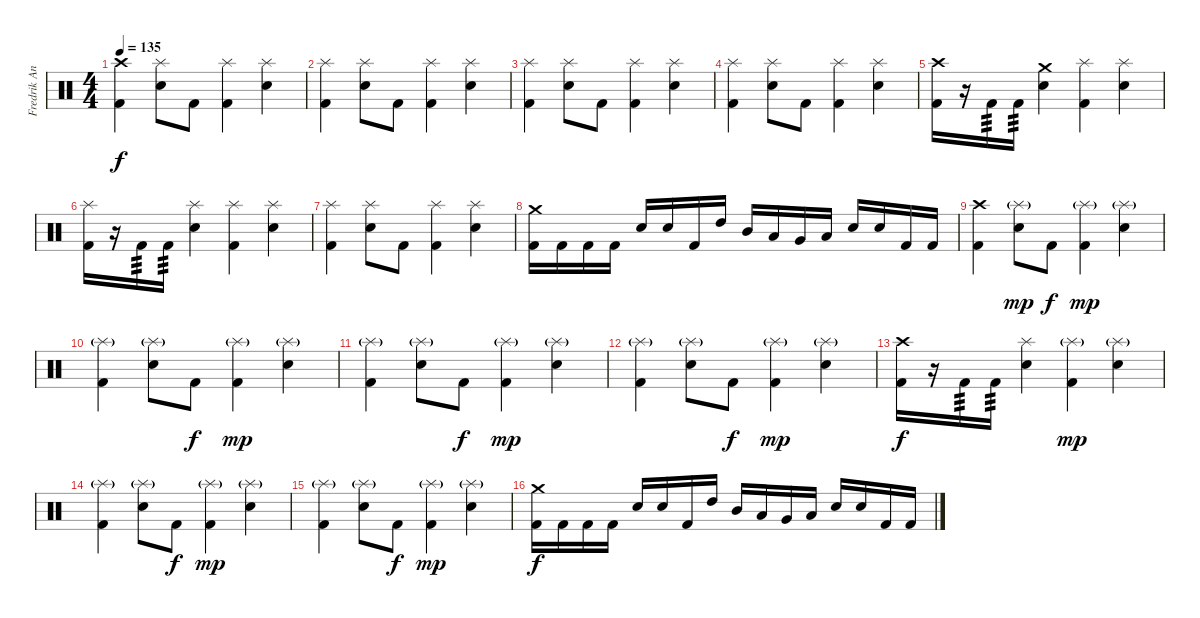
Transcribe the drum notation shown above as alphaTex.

\track ("Fredrik Andersson" "Fredrik An") {instrument percussion}
\staff {score}
\articulation defaults
\ts (4 4)
\tempo 135
\clef neutral
\ks c
("Kick (hit) 2" "Crash high (hit)").4{dy f} ("Snare (hit) 2" "Splash (hit)").8 "Kick (hit) 2".8 ("Kick (hit) 2" "Splash (hit)").4 ("Snare (hit) 2" "Splash (hit)").4 |
("Kick (hit) 2" "Splash (hit)").4 ("Snare (hit) 2" "Splash (hit)").8 "Kick (hit) 2".8 ("Kick (hit) 2" "Splash (hit)").4 ("Snare (hit) 2" "Splash (hit)").4 |
("Kick (hit) 2" "Splash (hit)").4 ("Snare (hit) 2" "Splash (hit)").8 "Kick (hit) 2".8 ("Kick (hit) 2" "Splash (hit)").4 ("Snare (hit) 2" "Splash (hit)").4 |
("Kick (hit) 2" "Splash (hit)").4 ("Snare (hit) 2" "Splash (hit)").8 "Kick (hit) 2".8 ("Kick (hit) 2" "Splash (hit)").4 ("Snare (hit) 2" "Splash (hit)").4 |
("Kick (hit) 2" "Crash high (hit)").16 r.16 "Kick (hit) 2".16{tp 3} "Kick (hit) 2".16{tp 3} ("Snare (hit) 2" "Crash medium (hit)").4 ("Kick (hit) 2" "Splash (hit)").4 ("Snare (hit) 2" "Splash (hit)").4 |
("Kick (hit) 2" "Splash (hit)").16 r.16 "Kick (hit) 2".16{tp 3} "Kick (hit) 2".16{tp 3} ("Snare (hit) 2" "Splash (hit)").4 ("Kick (hit) 2" "Splash (hit)").4 ("Snare (hit) 2" "Splash (hit)").4 |
("Kick (hit) 2" "Splash (hit)").4 ("Snare (hit) 2" "Splash (hit)").8 "Kick (hit) 2".8 ("Kick (hit) 2" "Splash (hit)").4 ("Snare (hit) 2" "Splash (hit)").4 |
("Kick (hit) 2" "Crash medium (hit)").16 "Kick (hit) 2".16 "Kick (hit) 2".16 "Kick (hit) 2".16 "Snare (hit) 2".16 "Snare (hit) 2".16 "Kick (hit) 2".16 "High Tom (hit)".16 "Mid Tom (hit)".16 "Low Tom (hit)".16 "Very Low Tom (hit)".16 "Low Floor Tom (hit)".16 "Snare (hit) 2".16 "Snare (hit) 2".16 "Kick (hit) 2".16 "Kick (hit) 2".16 |
("Kick (hit) 2" "Crash high (hit)").4 ("Snare (hit) 2" "Splash (hit)"{g}).8{dy mp} "Kick (hit) 2".8{dy f} ("Kick (hit) 2" "Splash (hit)"{g}).4{dy mp} ("Snare (hit) 2" "Splash (hit)"{g}).4 |
("Kick (hit) 2" "Splash (hit)"{g}).4 ("Snare (hit) 2" "Splash (hit)"{g}).8 "Kick (hit) 2".8{dy f} ("Kick (hit) 2" "Splash (hit)"{g}).4{dy mp} ("Snare (hit) 2" "Splash (hit)"{g}).4 |
("Kick (hit) 2" "Splash (hit)"{g}).4 ("Snare (hit) 2" "Splash (hit)"{g}).8 "Kick (hit) 2".8{dy f} ("Kick (hit) 2" "Splash (hit)"{g}).4{dy mp} ("Snare (hit) 2" "Splash (hit)"{g}).4 |
("Kick (hit) 2" "Splash (hit)"{g}).4 ("Snare (hit) 2" "Splash (hit)"{g}).8 "Kick (hit) 2".8{dy f} ("Kick (hit) 2" "Splash (hit)"{g}).4{dy mp} ("Snare (hit) 2" "Splash (hit)"{g}).4 |
("Kick (hit) 2" "Crash high (hit)").16{dy f} r.16 "Kick (hit) 2".16{tp 3} "Kick (hit) 2".16{tp 3} ("Snare (hit) 2" "Splash (hit)").4 ("Kick (hit) 2" "Splash (hit)"{g}).4{dy mp} ("Snare (hit) 2" "Splash (hit)"{g}).4 |
("Kick (hit) 2" "Splash (hit)"{g}).4 ("Snare (hit) 2" "Splash (hit)"{g}).8 "Kick (hit) 2".8{dy f} ("Kick (hit) 2" "Splash (hit)"{g}).4{dy mp} ("Snare (hit) 2" "Splash (hit)"{g}).4 |
("Kick (hit) 2" "Splash (hit)"{g}).4 ("Snare (hit) 2" "Splash (hit)"{g}).8 "Kick (hit) 2".8{dy f} ("Kick (hit) 2" "Splash (hit)"{g}).4{dy mp} ("Snare (hit) 2" "Splash (hit)"{g}).4 |
("Kick (hit) 2" "Crash medium (hit)").16{dy f} "Kick (hit) 2".16 "Kick (hit) 2".16 "Kick (hit) 2".16 "Snare (hit) 2".16 "Snare (hit) 2".16 "Kick (hit) 2".16 "High Tom (hit)".16 "Mid Tom (hit)".16 "Low Tom (hit)".16 "Very Low Tom (hit)".16 "Low Floor Tom (hit)".16 "Snare (hit) 2".16 "Snare (hit) 2".16 "Kick (hit) 2".16 "Kick (hit) 2".16
